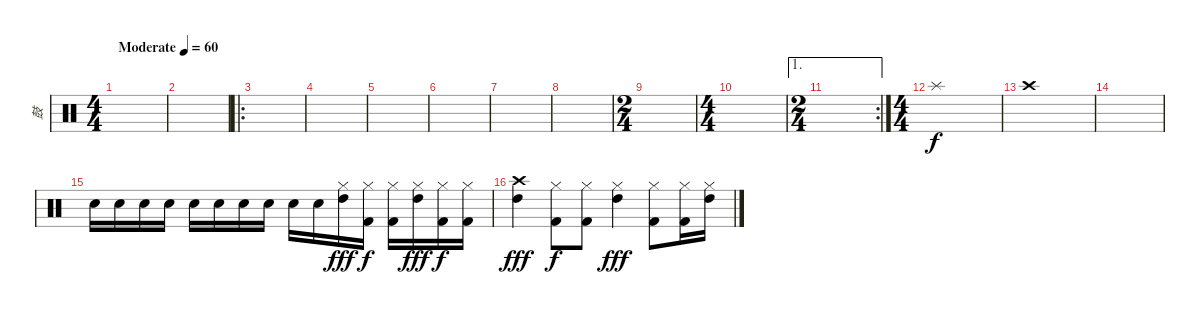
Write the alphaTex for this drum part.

\track ("鼓" "鼓") {instrument percussion}
\staff {score}
\articulation defaults
\ts (4 4)
\tempo (60 "Moderate")
\clef neutral
\ks c
|
|
\ro
|
|
|
|
|
|
\ts (2 4)
|
\ts (4 4)
|
\ae 1
\rc 2
\ts (2 4)
|
\ts (4 4)
"Splash (hit)".1 |
"Crash high (hit)".1 |
|
"Snare (hit)".16 "Snare (hit)".16 "Snare (hit)".16 "Snare (hit)".16 "Snare (hit)".16 "Snare (hit)".16 "Snare (hit)".16 "Snare (hit)".16 "Snare (hit)".16 "Snare (hit)".16 ("Hi-Hat (closed)" "High Tom (hit)").16{dy fff} ("Hi-Hat (closed)" "Kick (hit) 2").16{dy f} ("Hi-Hat (closed)" "Kick (hit) 2").16 ("Hi-Hat (closed)" "High Tom (hit)").16{dy fff} ("Hi-Hat (closed)" "Kick (hit) 2").16{dy f} ("Hi-Hat (closed)" "Kick (hit) 2").16 |
("Crash high (hit)" "High Tom (hit)").4{dy fff} ("Hi-Hat (closed)" "Kick (hit) 2").8{dy f} ("Hi-Hat (closed)" "Kick (hit) 2").8 ("Hi-Hat (closed)" "High Tom (hit)").4{dy fff} ("Hi-Hat (closed)" "Kick (hit) 2").8 ("Hi-Hat (closed)" "Kick (hit) 2").16 ("Hi-Hat (closed)" "High Tom (hit)").16
